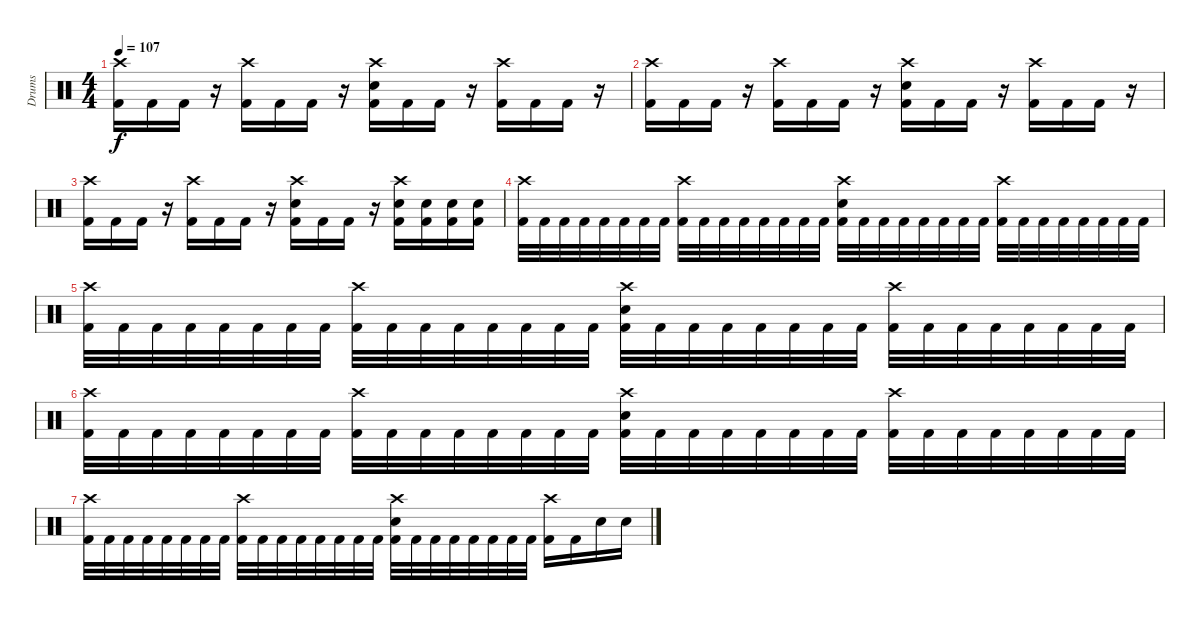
\track ("Drums" "Drums") {instrument percussion}
\staff
\articulation defaults
\ts (4 4)
\tempo 107
\clef neutral
\ks c
("Crash high (hit)" "Kick (hit) 2").16{dy f} "Kick (hit) 2".16 "Kick (hit) 2".16 r.16 ("Crash high (hit)" "Kick (hit) 2").16 "Kick (hit) 2".16 "Kick (hit) 2".16 r.16 ("Crash high (hit)" "Electric Snare (hit)" "Kick (hit) 2").16 "Kick (hit) 2".16 "Kick (hit) 2".16 r.16 ("Crash high (hit)" "Kick (hit) 2").16 "Kick (hit) 2".16 "Kick (hit) 2".16 r.16 |
("Crash high (hit)" "Kick (hit) 2").16 "Kick (hit) 2".16 "Kick (hit) 2".16 r.16 ("Crash high (hit)" "Kick (hit) 2").16 "Kick (hit) 2".16 "Kick (hit) 2".16 r.16 ("Crash high (hit)" "Electric Snare (hit)" "Kick (hit) 2").16 "Kick (hit) 2".16 "Kick (hit) 2".16 r.16 ("Crash high (hit)" "Kick (hit) 2").16 "Kick (hit) 2".16 "Kick (hit) 2".16 r.16 |
("Crash high (hit)" "Kick (hit) 2").16 "Kick (hit) 2".16 "Kick (hit) 2".16 r.16 ("Crash high (hit)" "Kick (hit) 2").16 "Kick (hit) 2".16 "Kick (hit) 2".16 r.16 ("Crash high (hit)" "Electric Snare (hit)" "Kick (hit) 2").16 "Kick (hit) 2".16 "Kick (hit) 2".16 r.16 ("Crash high (hit)" "Electric Snare (hit)" "Kick (hit) 2").16 ("Electric Snare (hit)" "Kick (hit) 2").16 ("Electric Snare (hit)" "Kick (hit) 2").16 ("Electric Snare (hit)" "Kick (hit) 2").16 |
("Crash high (hit)" "Kick (hit) 2").32 "Kick (hit) 2".32 "Kick (hit) 2".32 "Kick (hit) 2".32 "Kick (hit) 2".32 "Kick (hit) 2".32 "Kick (hit) 2".32 "Kick (hit) 2".32 ("Crash high (hit)" "Kick (hit) 2").32 "Kick (hit) 2".32 "Kick (hit) 2".32 "Kick (hit) 2".32 "Kick (hit) 2".32 "Kick (hit) 2".32 "Kick (hit) 2".32 "Kick (hit) 2".32 ("Crash high (hit)" "Electric Snare (hit)" "Kick (hit) 2").32 "Kick (hit) 2".32 "Kick (hit) 2".32 "Kick (hit) 2".32 "Kick (hit) 2".32 "Kick (hit) 2".32 "Kick (hit) 2".32 "Kick (hit) 2".32 ("Crash high (hit)" "Kick (hit) 2").32 "Kick (hit) 2".32 "Kick (hit) 2".32 "Kick (hit) 2".32 "Kick (hit) 2".32 "Kick (hit) 2".32 "Kick (hit) 2".32 "Kick (hit) 2".32 |
("Crash high (hit)" "Kick (hit) 2").32 "Kick (hit) 2".32 "Kick (hit) 2".32 "Kick (hit) 2".32 "Kick (hit) 2".32 "Kick (hit) 2".32 "Kick (hit) 2".32 "Kick (hit) 2".32 ("Crash high (hit)" "Kick (hit) 2").32 "Kick (hit) 2".32 "Kick (hit) 2".32 "Kick (hit) 2".32 "Kick (hit) 2".32 "Kick (hit) 2".32 "Kick (hit) 2".32 "Kick (hit) 2".32 ("Crash high (hit)" "Electric Snare (hit)" "Kick (hit) 2").32 "Kick (hit) 2".32 "Kick (hit) 2".32 "Kick (hit) 2".32 "Kick (hit) 2".32 "Kick (hit) 2".32 "Kick (hit) 2".32 "Kick (hit) 2".32 ("Crash high (hit)" "Kick (hit) 2").32 "Kick (hit) 2".32 "Kick (hit) 2".32 "Kick (hit) 2".32 "Kick (hit) 2".32 "Kick (hit) 2".32 "Kick (hit) 2".32 "Kick (hit) 2".32 |
("Crash high (hit)" "Kick (hit) 2").32 "Kick (hit) 2".32 "Kick (hit) 2".32 "Kick (hit) 2".32 "Kick (hit) 2".32 "Kick (hit) 2".32 "Kick (hit) 2".32 "Kick (hit) 2".32 ("Crash high (hit)" "Kick (hit) 2").32 "Kick (hit) 2".32 "Kick (hit) 2".32 "Kick (hit) 2".32 "Kick (hit) 2".32 "Kick (hit) 2".32 "Kick (hit) 2".32 "Kick (hit) 2".32 ("Crash high (hit)" "Electric Snare (hit)" "Kick (hit) 2").32 "Kick (hit) 2".32 "Kick (hit) 2".32 "Kick (hit) 2".32 "Kick (hit) 2".32 "Kick (hit) 2".32 "Kick (hit) 2".32 "Kick (hit) 2".32 ("Crash high (hit)" "Kick (hit) 2").32 "Kick (hit) 2".32 "Kick (hit) 2".32 "Kick (hit) 2".32 "Kick (hit) 2".32 "Kick (hit) 2".32 "Kick (hit) 2".32 "Kick (hit) 2".32 |
("Crash high (hit)" "Kick (hit) 2").32 "Kick (hit) 2".32 "Kick (hit) 2".32 "Kick (hit) 2".32 "Kick (hit) 2".32 "Kick (hit) 2".32 "Kick (hit) 2".32 "Kick (hit) 2".32 ("Crash high (hit)" "Kick (hit) 2").32 "Kick (hit) 2".32 "Kick (hit) 2".32 "Kick (hit) 2".32 "Kick (hit) 2".32 "Kick (hit) 2".32 "Kick (hit) 2".32 "Kick (hit) 2".32 ("Crash high (hit)" "Electric Snare (hit)" "Kick (hit) 2").32 "Kick (hit) 2".32 "Kick (hit) 2".32 "Kick (hit) 2".32 "Kick (hit) 2".32 "Kick (hit) 2".32 "Kick (hit) 2".32 "Kick (hit) 2".32 ("Crash high (hit)" "Kick (hit) 2").16 "Kick (hit) 2".16 "Electric Snare (hit)".16 "Electric Snare (hit)".16
